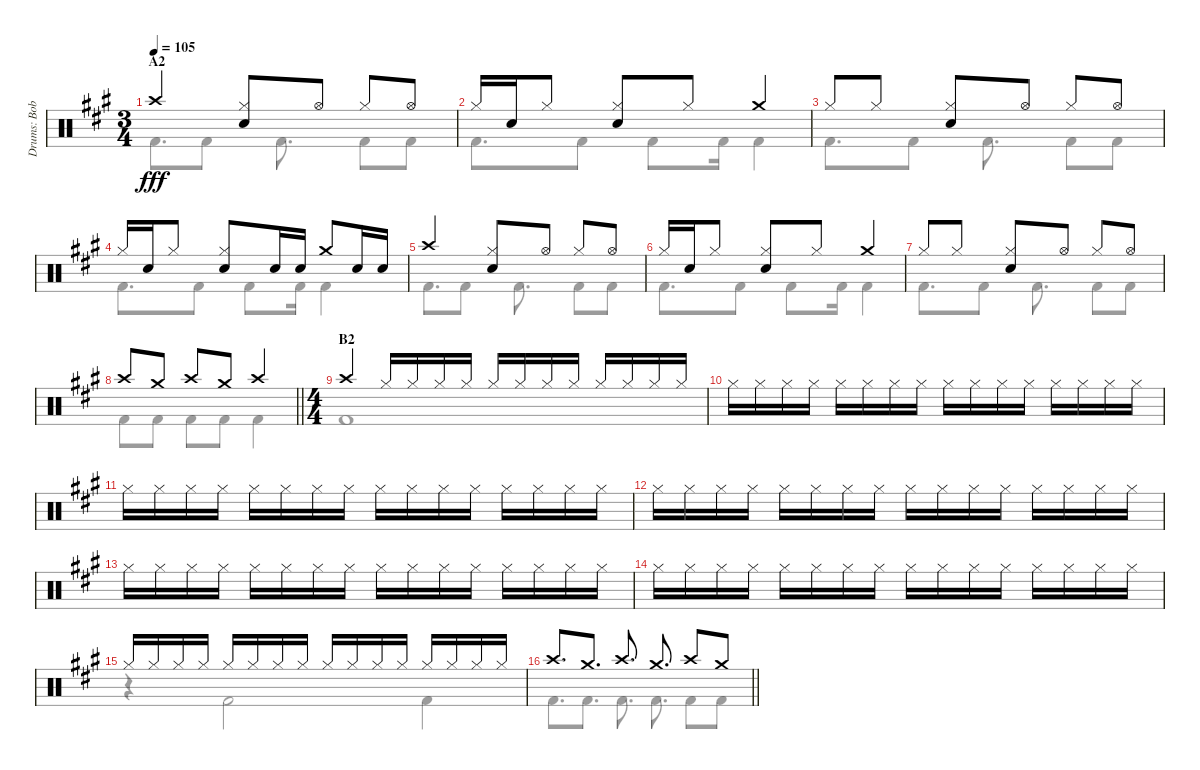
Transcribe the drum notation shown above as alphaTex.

\track ("Drums: Bobby" "Drums: Bob") {instrument percussion}
\staff {score}
\articulation defaults
\voice
\ts (3 4)
\section ("" "A2")
\tempo 105
\clef neutral
\ks a "Crash high (hit)".4{dy fff}
("Hi-Hat (closed)" "Snare (hit) 2").8 "Hi-Hat (open)".8 "Hi-Hat (closed)".8 "Hi-Hat (open)".8 |
"Hi-Hat (closed)".16 "Snare (hit) 2".16 "Hi-Hat (closed)".8 ("Hi-Hat (closed)" "Snare (hit) 2").8 "Hi-Hat (closed)".8 "Crash medium (hit)".4 |
"Hi-Hat (closed)".8 "Hi-Hat (closed)".8 ("Hi-Hat (closed)" "Snare (hit) 2").8 "Hi-Hat (open)".8 "Hi-Hat (closed)".8 "Hi-Hat (open)".8 |
"Hi-Hat (closed)".16 "Snare (hit) 2".16 "Hi-Hat (closed)".8 ("Hi-Hat (closed)" "Snare (hit) 2").8 "Snare (hit) 2".16 "Snare (hit) 2".16 "Crash medium (hit)".8 "Snare (hit) 2".16 "Snare (hit) 2".16 |
"Crash high (hit)".4 ("Hi-Hat (closed)" "Snare (hit) 2").8 "Hi-Hat (open)".8 "Hi-Hat (closed)".8 "Hi-Hat (open)".8 |
"Hi-Hat (closed)".16 "Snare (hit) 2".16 "Hi-Hat (closed)".8 ("Hi-Hat (closed)" "Snare (hit) 2").8 "Hi-Hat (closed)".8 "Crash medium (hit)".4 |
"Hi-Hat (closed)".8 "Hi-Hat (closed)".8 ("Hi-Hat (closed)" "Snare (hit) 2").8 "Hi-Hat (open)".8 "Hi-Hat (closed)".8 "Hi-Hat (open)".8 |
\barLineRight lightlight "Crash high (hit)".8 "Crash medium (hit)".8 "Crash high (hit)".8 "Crash medium (hit)".8 "Crash high (hit)".4
|
\ts (4 4)
\section ("" "B2")
"Crash high (hit)".4 "Hi-Hat (closed)".16 "Hi-Hat (closed)".16 "Hi-Hat (closed)".16 "Hi-Hat (closed)".16 "Hi-Hat (closed)".16 "Hi-Hat (closed)".16 "Hi-Hat (closed)".16 "Hi-Hat (closed)".16 "Hi-Hat (closed)".16 "Hi-Hat (closed)".16 "Hi-Hat (closed)".16 "Hi-Hat (closed)".16 |
"Hi-Hat (closed)".16 "Hi-Hat (closed)".16 "Hi-Hat (closed)".16 "Hi-Hat (closed)".16 "Hi-Hat (closed)".16 "Hi-Hat (closed)".16 "Hi-Hat (closed)".16 "Hi-Hat (closed)".16 "Hi-Hat (closed)".16 "Hi-Hat (closed)".16 "Hi-Hat (closed)".16 "Hi-Hat (closed)".16 "Hi-Hat (closed)".16 "Hi-Hat (closed)".16 "Hi-Hat (closed)".16 "Hi-Hat (closed)".16 |
"Hi-Hat (closed)".16 "Hi-Hat (closed)".16 "Hi-Hat (closed)".16 "Hi-Hat (closed)".16 "Hi-Hat (closed)".16 "Hi-Hat (closed)".16 "Hi-Hat (closed)".16 "Hi-Hat (closed)".16 "Hi-Hat (closed)".16 "Hi-Hat (closed)".16 "Hi-Hat (closed)".16 "Hi-Hat (closed)".16 "Hi-Hat (closed)".16 "Hi-Hat (closed)".16 "Hi-Hat (closed)".16 "Hi-Hat (closed)".16 |
"Hi-Hat (closed)".16 "Hi-Hat (closed)".16 "Hi-Hat (closed)".16 "Hi-Hat (closed)".16 "Hi-Hat (closed)".16 "Hi-Hat (closed)".16 "Hi-Hat (closed)".16 "Hi-Hat (closed)".16 "Hi-Hat (closed)".16 "Hi-Hat (closed)".16 "Hi-Hat (closed)".16 "Hi-Hat (closed)".16 "Hi-Hat (closed)".16 "Hi-Hat (closed)".16 "Hi-Hat (closed)".16 "Hi-Hat (closed)".16 |
"Hi-Hat (closed)".16 "Hi-Hat (closed)".16 "Hi-Hat (closed)".16 "Hi-Hat (closed)".16 "Hi-Hat (closed)".16 "Hi-Hat (closed)".16 "Hi-Hat (closed)".16 "Hi-Hat (closed)".16 "Hi-Hat (closed)".16 "Hi-Hat (closed)".16 "Hi-Hat (closed)".16 "Hi-Hat (closed)".16 "Hi-Hat (closed)".16 "Hi-Hat (closed)".16 "Hi-Hat (closed)".16 "Hi-Hat (closed)".16 |
"Hi-Hat (closed)".16 "Hi-Hat (closed)".16 "Hi-Hat (closed)".16 "Hi-Hat (closed)".16 "Hi-Hat (closed)".16 "Hi-Hat (closed)".16 "Hi-Hat (closed)".16 "Hi-Hat (closed)".16 "Hi-Hat (closed)".16 "Hi-Hat (closed)".16 "Hi-Hat (closed)".16 "Hi-Hat (closed)".16 "Hi-Hat (closed)".16 "Hi-Hat (closed)".16 "Hi-Hat (closed)".16 "Hi-Hat (closed)".16 |
"Hi-Hat (closed)".16 "Hi-Hat (closed)".16 "Hi-Hat (closed)".16 "Hi-Hat (closed)".16 "Hi-Hat (closed)".16 "Hi-Hat (closed)".16 "Hi-Hat (closed)".16 "Hi-Hat (closed)".16 "Hi-Hat (closed)".16 "Hi-Hat (closed)".16 "Hi-Hat (closed)".16 "Hi-Hat (closed)".16 "Hi-Hat (closed)".16 "Hi-Hat (closed)".16 "Hi-Hat (closed)".16 "Hi-Hat (closed)".16 |
\barLineRight lightlight "Crash high (hit)".8{d} "Crash medium (hit)".8{d} "Crash high (hit)".8{d} "Crash medium (hit)".8{d} "Crash high (hit)".8 "Crash medium (hit)".8
\voice
\clef neutral
\ottava regular
\simile none
\ks a "Kick (hit) 2".8{d dy fff} "Kick (hit) 2".8 "Kick (hit) 2".8{d} "Kick (hit) 2".8 "Kick (hit) 2".8
|
"Kick (hit) 2".8{d} "Kick (hit) 2".8 "Kick (hit) 2".8 "Kick (hit) 2".16 "Kick (hit) 2".4 |
"Kick (hit) 2".8{d} "Kick (hit) 2".8 "Kick (hit) 2".8{d} "Kick (hit) 2".8 "Kick (hit) 2".8 |
"Kick (hit) 2".8{d} "Kick (hit) 2".8 "Kick (hit) 2".8 "Kick (hit) 2".16 "Kick (hit) 2".4 |
"Kick (hit) 2".8{d} "Kick (hit) 2".8 "Kick (hit) 2".8{d} "Kick (hit) 2".8 "Kick (hit) 2".8 |
"Kick (hit) 2".8{d} "Kick (hit) 2".8 "Kick (hit) 2".8 "Kick (hit) 2".16 "Kick (hit) 2".4 |
"Kick (hit) 2".8{d} "Kick (hit) 2".8 "Kick (hit) 2".8{d} "Kick (hit) 2".8 "Kick (hit) 2".8 |
\barLineRight lightlight "Kick (hit) 2".8 "Kick (hit) 2".8 "Kick (hit) 2".8 "Kick (hit) 2".8 "Kick (hit) 2".4
|
"Kick (hit) 2".1 |
|
|
|
|
|
r.4 "Kick (hit) 2".2 "Kick (hit) 2".4 |
\barLineRight lightlight "Kick (hit) 2".8{d} "Kick (hit) 2".8{d} "Kick (hit) 2".8{d} "Kick (hit) 2".8{d} "Kick (hit) 2".8 "Kick (hit) 2".8
